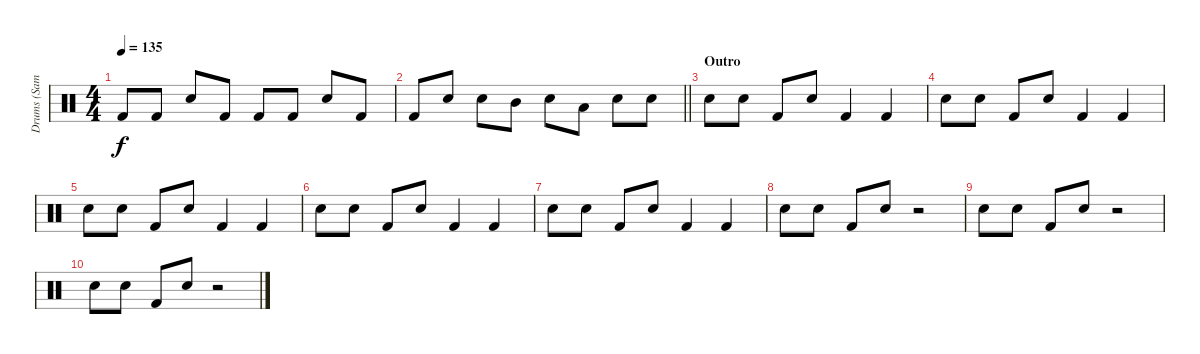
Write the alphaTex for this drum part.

\track ("Drums (Sam Fogarino)" "Drums (Sam") {instrument percussion}
\staff {score}
\articulation defaults
\ts (4 4)
\tempo 135
\clef neutral
\ks c "Kick (hit) 2".8{dy f} "Kick (hit) 2".8 "Snare (hit) 2".8 "Kick (hit) 2".8 "Kick (hit) 2".8 "Kick (hit) 2".8 "Snare (hit) 2".8 "Kick (hit) 2".8
|
\barLineRight lightlight "Kick (hit) 2".8 "Snare (hit) 2".8 "Snare (hit) 2".8 "Mid Tom (hit)".8 "Snare (hit) 2".8 "Low Tom (hit)".8 "Snare (hit) 2".8 "Snare (hit) 2".8
|
\section ("" "Outro")
"Snare (hit) 2".8 "Snare (hit) 2".8 "Kick (hit) 2".8 "Snare (hit) 2".8 "Kick (hit) 2".4 "Kick (hit) 2".4 |
"Snare (hit) 2".8 "Snare (hit) 2".8 "Kick (hit) 2".8 "Snare (hit) 2".8 "Kick (hit) 2".4 "Kick (hit) 2".4 |
"Snare (hit) 2".8 "Snare (hit) 2".8 "Kick (hit) 2".8 "Snare (hit) 2".8 "Kick (hit) 2".4 "Kick (hit) 2".4 |
"Snare (hit) 2".8 "Snare (hit) 2".8 "Kick (hit) 2".8 "Snare (hit) 2".8 "Kick (hit) 2".4 "Kick (hit) 2".4 |
"Snare (hit) 2".8 "Snare (hit) 2".8 "Kick (hit) 2".8 "Snare (hit) 2".8 "Kick (hit) 2".4 "Kick (hit) 2".4 |
"Snare (hit) 2".8 "Snare (hit) 2".8 "Kick (hit) 2".8 "Snare (hit) 2".8 r.2 |
"Snare (hit) 2".8 "Snare (hit) 2".8 "Kick (hit) 2".8 "Snare (hit) 2".8 r.2 |
"Snare (hit) 2".8 "Snare (hit) 2".8 "Kick (hit) 2".8 "Snare (hit) 2".8 r.2
